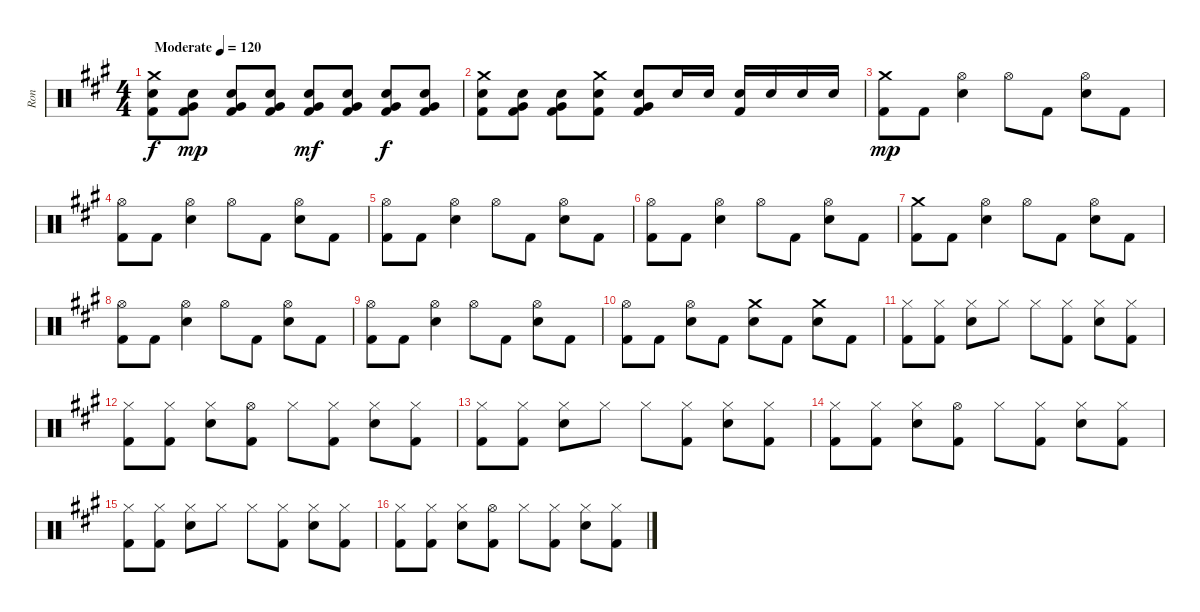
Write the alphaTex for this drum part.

\track ("Ron" "Ron") {instrument percussion}
\staff {score}
\articulation defaults
\ts (4 4)
\tempo (120 "Moderate")
\clef neutral
\ks a
("Crash medium (hit)" "Electric Snare (hit)" "Kick (hit) 2").8{dy f} ("Electric Snare (hit)" "Very Low Tom (hit)" "Kick (hit) 2").8{dy mp} ("Electric Snare (hit)" "Very Low Tom (hit)" "Kick (hit) 2").8 ("Electric Snare (hit)" "Very Low Tom (hit)" "Kick (hit) 2").8 ("Electric Snare (hit)" "Very Low Tom (hit)" "Kick (hit) 2").8{dy mf} ("Electric Snare (hit)" "Very Low Tom (hit)" "Kick (hit) 2").8 ("Electric Snare (hit)" "Very Low Tom (hit)" "Kick (hit) 2").8{dy f} ("Electric Snare (hit)" "Very Low Tom (hit)" "Kick (hit) 2").8 |
("Crash medium (hit)" "Electric Snare (hit)" "Kick (hit) 2").8 ("Electric Snare (hit)" "Very Low Tom (hit)" "Kick (hit) 2").8 ("Electric Snare (hit)" "Very Low Tom (hit)" "Kick (hit) 2").8 ("Crash medium (hit)" "Electric Snare (hit)" "Kick (hit) 2").8 ("Electric Snare (hit)" "Very Low Tom (hit)" "Kick (hit) 2").8 "Electric Snare (hit)".16 "Electric Snare (hit)".16 ("Electric Snare (hit)" "Kick (hit) 2").16 "Electric Snare (hit)".16 "Electric Snare (hit)".16 "Electric Snare (hit)".16 |
("Crash medium (hit)" "Kick (hit) 2").8{dy mp} "Kick (hit) 2".8 ("Hi-Hat (open)" "Electric Snare (hit)").4 "Hi-Hat (open)".8 "Kick (hit) 2".8 ("Hi-Hat (open)" "Electric Snare (hit)").8 "Kick (hit) 2".8 |
("Hi-Hat (open)" "Kick (hit) 2").8 "Kick (hit) 2".8 ("Hi-Hat (open)" "Electric Snare (hit)").4 "Hi-Hat (open)".8 "Kick (hit) 2".8 ("Hi-Hat (open)" "Electric Snare (hit)").8 "Kick (hit) 2".8 |
("Hi-Hat (open)" "Kick (hit) 2").8 "Kick (hit) 2".8 ("Hi-Hat (open)" "Electric Snare (hit)").4 "Hi-Hat (open)".8 "Kick (hit) 2".8 ("Hi-Hat (open)" "Electric Snare (hit)").8 "Kick (hit) 2".8 |
("Hi-Hat (open)" "Kick (hit) 2").8 "Kick (hit) 2".8 ("Hi-Hat (open)" "Electric Snare (hit)").4 "Hi-Hat (open)".8 "Kick (hit) 2".8 ("Hi-Hat (open)" "Electric Snare (hit)").8 "Kick (hit) 2".8 |
("Crash medium (hit)" "Kick (hit) 2").8 "Kick (hit) 2".8 ("Hi-Hat (open)" "Electric Snare (hit)").4 "Hi-Hat (open)".8 "Kick (hit) 2".8 ("Hi-Hat (open)" "Electric Snare (hit)").8 "Kick (hit) 2".8 |
("Hi-Hat (open)" "Kick (hit) 2").8 "Kick (hit) 2".8 ("Hi-Hat (open)" "Electric Snare (hit)").4 "Hi-Hat (open)".8 "Kick (hit) 2".8 ("Hi-Hat (open)" "Electric Snare (hit)").8 "Kick (hit) 2".8 |
("Hi-Hat (open)" "Kick (hit) 2").8 "Kick (hit) 2".8 ("Hi-Hat (open)" "Electric Snare (hit)").4 "Hi-Hat (open)".8 "Kick (hit) 2".8 ("Hi-Hat (open)" "Electric Snare (hit)").8 "Kick (hit) 2".8 |
("Hi-Hat (open)" "Kick (hit) 2").8 "Kick (hit) 2".8 ("Hi-Hat (open)" "Electric Snare (hit)").8 "Kick (hit) 2".8 ("Crash medium (hit)" "Electric Snare (hit)").8 "Kick (hit) 2".8 ("Crash medium (hit)" "Electric Snare (hit)").8 "Kick (hit) 2".8 |
("Hi-Hat (closed)" "Kick (hit) 2").8 ("Hi-Hat (closed)" "Kick (hit) 2").8 ("Hi-Hat (closed)" "Electric Snare (hit)").8 "Hi-Hat (closed)".8 "Hi-Hat (closed)".8 ("Hi-Hat (closed)" "Kick (hit) 2").8 ("Hi-Hat (closed)" "Electric Snare (hit)").8 ("Hi-Hat (closed)" "Kick (hit) 2").8 |
("Hi-Hat (closed)" "Kick (hit) 2").8 ("Hi-Hat (closed)" "Kick (hit) 2").8 ("Hi-Hat (closed)" "Electric Snare (hit)").8 ("Hi-Hat (open)" "Kick (hit) 2").8 "Hi-Hat (closed)".8 ("Hi-Hat (closed)" "Kick (hit) 2").8 ("Hi-Hat (closed)" "Electric Snare (hit)").8 ("Hi-Hat (closed)" "Kick (hit) 2").8 |
("Hi-Hat (closed)" "Kick (hit) 2").8 ("Hi-Hat (closed)" "Kick (hit) 2").8 ("Hi-Hat (closed)" "Electric Snare (hit)").8 "Hi-Hat (closed)".8 "Hi-Hat (closed)".8 ("Hi-Hat (closed)" "Kick (hit) 2").8 ("Hi-Hat (closed)" "Electric Snare (hit)").8 ("Hi-Hat (closed)" "Kick (hit) 2").8 |
("Hi-Hat (closed)" "Kick (hit) 2").8 ("Hi-Hat (closed)" "Kick (hit) 2").8 ("Hi-Hat (closed)" "Electric Snare (hit)").8 ("Hi-Hat (open)" "Kick (hit) 2").8 "Hi-Hat (closed)".8 ("Hi-Hat (closed)" "Kick (hit) 2").8 ("Hi-Hat (closed)" "Electric Snare (hit)").8 ("Hi-Hat (closed)" "Kick (hit) 2").8 |
("Hi-Hat (closed)" "Kick (hit) 2").8 ("Hi-Hat (closed)" "Kick (hit) 2").8 ("Hi-Hat (closed)" "Electric Snare (hit)").8 "Hi-Hat (closed)".8 "Hi-Hat (closed)".8 ("Hi-Hat (closed)" "Kick (hit) 2").8 ("Hi-Hat (closed)" "Electric Snare (hit)").8 ("Hi-Hat (closed)" "Kick (hit) 2").8 |
("Hi-Hat (closed)" "Kick (hit) 2").8 ("Hi-Hat (closed)" "Kick (hit) 2").8 ("Hi-Hat (closed)" "Electric Snare (hit)").8 ("Hi-Hat (open)" "Kick (hit) 2").8 "Hi-Hat (closed)".8 ("Hi-Hat (closed)" "Kick (hit) 2").8 ("Hi-Hat (closed)" "Electric Snare (hit)").8 ("Hi-Hat (closed)" "Kick (hit) 2").8
